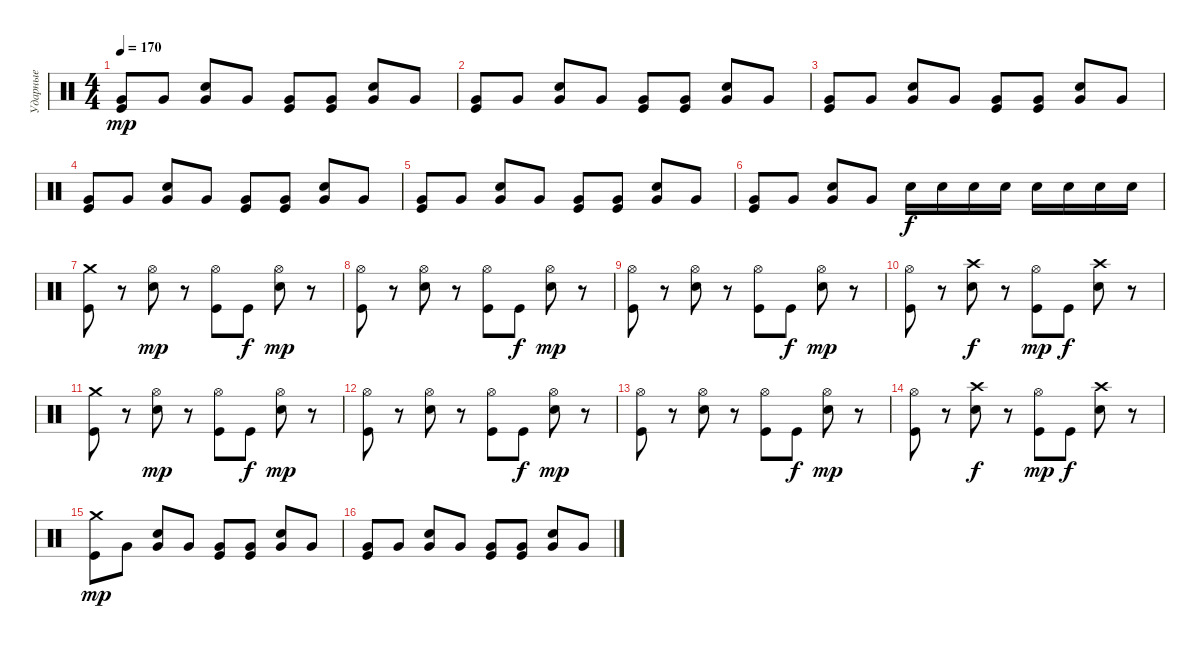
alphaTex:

\track ("Ударные" "Ударные") {instrument percussion}
\staff {score}
\articulation defaults
\ts (4 4)
\tempo 170
\clef neutral
\ks c
("Very Low Tom (hit)" "Kick (hit)").8{dy mp} "Very Low Tom (hit)".8 ("Very Low Tom (hit)" "Electric Snare (hit)").8 "Very Low Tom (hit)".8 ("Very Low Tom (hit)" "Kick (hit)").8 ("Very Low Tom (hit)" "Kick (hit)").8 ("Very Low Tom (hit)" "Electric Snare (hit)").8 "Very Low Tom (hit)".8 |
("Very Low Tom (hit)" "Kick (hit)").8 "Very Low Tom (hit)".8 ("Very Low Tom (hit)" "Electric Snare (hit)").8 "Very Low Tom (hit)".8 ("Very Low Tom (hit)" "Kick (hit)").8 ("Very Low Tom (hit)" "Kick (hit)").8 ("Very Low Tom (hit)" "Electric Snare (hit)").8 "Very Low Tom (hit)".8 |
("Very Low Tom (hit)" "Kick (hit)").8 "Very Low Tom (hit)".8 ("Very Low Tom (hit)" "Electric Snare (hit)").8 "Very Low Tom (hit)".8 ("Very Low Tom (hit)" "Kick (hit)").8 ("Very Low Tom (hit)" "Kick (hit)").8 ("Very Low Tom (hit)" "Electric Snare (hit)").8 "Very Low Tom (hit)".8 |
("Very Low Tom (hit)" "Kick (hit)").8 "Very Low Tom (hit)".8 ("Very Low Tom (hit)" "Electric Snare (hit)").8 "Very Low Tom (hit)".8 ("Very Low Tom (hit)" "Kick (hit)").8 ("Very Low Tom (hit)" "Kick (hit)").8 ("Very Low Tom (hit)" "Electric Snare (hit)").8 "Very Low Tom (hit)".8 |
("Very Low Tom (hit)" "Kick (hit)").8 "Very Low Tom (hit)".8 ("Very Low Tom (hit)" "Electric Snare (hit)").8 "Very Low Tom (hit)".8 ("Very Low Tom (hit)" "Kick (hit)").8 ("Very Low Tom (hit)" "Kick (hit)").8 ("Very Low Tom (hit)" "Electric Snare (hit)").8 "Very Low Tom (hit)".8 |
("Very Low Tom (hit)" "Kick (hit)").8 "Very Low Tom (hit)".8 ("Very Low Tom (hit)" "Electric Snare (hit)").8 "Very Low Tom (hit)".8 "Electric Snare (hit)".16{dy f} "Electric Snare (hit)".16 "Electric Snare (hit)".16 "Electric Snare (hit)".16 "Electric Snare (hit)".16 "Electric Snare (hit)".16 "Electric Snare (hit)".16 "Electric Snare (hit)".16 |
("Crash medium (hit)" "Kick (hit)").8 r.8 ("Hi-Hat (open)" "Electric Snare (hit)").8{dy mp} r.8 ("Hi-Hat (open)" "Kick (hit)").8 "Kick (hit)".8{dy f} ("Hi-Hat (open)" "Electric Snare (hit)").8{dy mp} r.8 |
("Hi-Hat (open)" "Kick (hit)").8 r.8 ("Hi-Hat (open)" "Electric Snare (hit)").8 r.8 ("Hi-Hat (open)" "Kick (hit)").8 "Kick (hit)".8{dy f} ("Hi-Hat (open)" "Electric Snare (hit)").8{dy mp} r.8 |
("Hi-Hat (open)" "Kick (hit)").8 r.8 ("Hi-Hat (open)" "Electric Snare (hit)").8 r.8 ("Hi-Hat (open)" "Kick (hit)").8 "Kick (hit)".8{dy f} ("Hi-Hat (open)" "Electric Snare (hit)").8{dy mp} r.8 |
("Hi-Hat (open)" "Kick (hit)").8 r.8 ("Crash high (hit)" "Electric Snare (hit)").8{dy f} r.8 ("Hi-Hat (open)" "Kick (hit)").8{dy mp} "Kick (hit)".8{dy f} ("Crash high (hit)" "Electric Snare (hit)").8 r.8 |
("Crash medium (hit)" "Kick (hit)").8 r.8 ("Hi-Hat (open)" "Electric Snare (hit)").8{dy mp} r.8 ("Hi-Hat (open)" "Kick (hit)").8 "Kick (hit)".8{dy f} ("Hi-Hat (open)" "Electric Snare (hit)").8{dy mp} r.8 |
("Hi-Hat (open)" "Kick (hit)").8 r.8 ("Hi-Hat (open)" "Electric Snare (hit)").8 r.8 ("Hi-Hat (open)" "Kick (hit)").8 "Kick (hit)".8{dy f} ("Hi-Hat (open)" "Electric Snare (hit)").8{dy mp} r.8 |
("Hi-Hat (open)" "Kick (hit)").8 r.8 ("Hi-Hat (open)" "Electric Snare (hit)").8 r.8 ("Hi-Hat (open)" "Kick (hit)").8 "Kick (hit)".8{dy f} ("Hi-Hat (open)" "Electric Snare (hit)").8{dy mp} r.8 |
("Hi-Hat (open)" "Kick (hit)").8 r.8 ("Crash high (hit)" "Electric Snare (hit)").8{dy f} r.8 ("Hi-Hat (open)" "Kick (hit)").8{dy mp} "Kick (hit)".8{dy f} ("Crash high (hit)" "Electric Snare (hit)").8 r.8 |
("Crash medium (hit)" "Kick (hit)").8{dy mp} "Very Low Tom (hit)".8 ("Very Low Tom (hit)" "Electric Snare (hit)").8 "Very Low Tom (hit)".8 ("Very Low Tom (hit)" "Kick (hit)").8 ("Very Low Tom (hit)" "Kick (hit)").8 ("Very Low Tom (hit)" "Electric Snare (hit)").8 "Very Low Tom (hit)".8 |
("Very Low Tom (hit)" "Kick (hit)").8 "Very Low Tom (hit)".8 ("Very Low Tom (hit)" "Electric Snare (hit)").8 "Very Low Tom (hit)".8 ("Very Low Tom (hit)" "Kick (hit)").8 ("Very Low Tom (hit)" "Kick (hit)").8 ("Very Low Tom (hit)" "Electric Snare (hit)").8 "Very Low Tom (hit)".8
